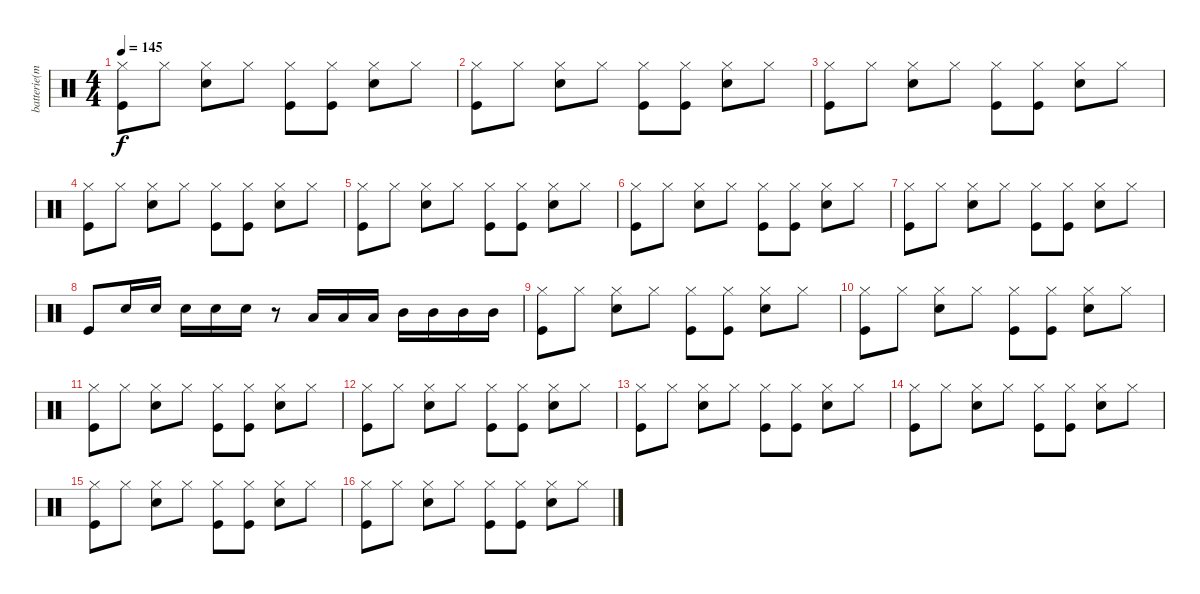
\track ("batterie(micky)" "batterie(m") {instrument percussion}
\staff {score}
\articulation defaults
\ts (4 4)
\tempo 145
\clef neutral
\ks c
("Hi-Hat (closed)" "Kick (hit)").8{dy f} "Hi-Hat (closed)".8 ("Hi-Hat (closed)" "Snare (hit) 2").8 "Hi-Hat (closed)".8 ("Hi-Hat (closed)" "Kick (hit)").8 ("Hi-Hat (closed)" "Kick (hit)").8 ("Hi-Hat (closed)" "Snare (hit) 2").8 "Hi-Hat (closed)".8 |
("Hi-Hat (closed)" "Kick (hit)").8 "Hi-Hat (closed)".8 ("Hi-Hat (closed)" "Snare (hit) 2").8 "Hi-Hat (closed)".8 ("Hi-Hat (closed)" "Kick (hit)").8 ("Hi-Hat (closed)" "Kick (hit)").8 ("Hi-Hat (closed)" "Snare (hit) 2").8 "Hi-Hat (closed)".8 |
("Hi-Hat (closed)" "Kick (hit)").8 "Hi-Hat (closed)".8 ("Hi-Hat (closed)" "Snare (hit) 2").8 "Hi-Hat (closed)".8 ("Hi-Hat (closed)" "Kick (hit)").8 ("Hi-Hat (closed)" "Kick (hit)").8 ("Hi-Hat (closed)" "Snare (hit) 2").8 "Hi-Hat (closed)".8 |
("Hi-Hat (closed)" "Kick (hit)").8 "Hi-Hat (closed)".8 ("Hi-Hat (closed)" "Snare (hit) 2").8 "Hi-Hat (closed)".8 ("Hi-Hat (closed)" "Kick (hit)").8 ("Hi-Hat (closed)" "Kick (hit)").8 ("Hi-Hat (closed)" "Snare (hit) 2").8 "Hi-Hat (closed)".8 |
("Hi-Hat (closed)" "Kick (hit)").8 "Hi-Hat (closed)".8 ("Hi-Hat (closed)" "Snare (hit) 2").8 "Hi-Hat (closed)".8 ("Hi-Hat (closed)" "Kick (hit)").8 ("Hi-Hat (closed)" "Kick (hit)").8 ("Hi-Hat (closed)" "Snare (hit) 2").8 "Hi-Hat (closed)".8 |
("Hi-Hat (closed)" "Kick (hit)").8 "Hi-Hat (closed)".8 ("Hi-Hat (closed)" "Snare (hit) 2").8 "Hi-Hat (closed)".8 ("Hi-Hat (closed)" "Kick (hit)").8 ("Hi-Hat (closed)" "Kick (hit)").8 ("Hi-Hat (closed)" "Snare (hit) 2").8 "Hi-Hat (closed)".8 |
("Hi-Hat (closed)" "Kick (hit)").8 "Hi-Hat (closed)".8 ("Hi-Hat (closed)" "Snare (hit) 2").8 "Hi-Hat (closed)".8 ("Hi-Hat (closed)" "Kick (hit)").8 ("Hi-Hat (closed)" "Kick (hit)").8 ("Hi-Hat (closed)" "Snare (hit) 2").8 "Hi-Hat (closed)".8 |
"Kick (hit)".8 "Snare (hit) 2".16 "Snare (hit) 2".16 "Snare (hit) 2".16 "Snare (hit) 2".16 "Snare (hit) 2".16 r.8 "Low Tom (hit)".16 "Low Tom (hit)".16 "Low Tom (hit)".16 "Mid Tom (hit)".16 "Mid Tom (hit)".16 "Mid Tom (hit)".16 "Mid Tom (hit)".16 |
("Hi-Hat (closed)" "Kick (hit)").8 "Hi-Hat (closed)".8 ("Hi-Hat (closed)" "Snare (hit) 2").8 "Hi-Hat (closed)".8 ("Hi-Hat (closed)" "Kick (hit)").8 ("Hi-Hat (closed)" "Kick (hit)").8 ("Hi-Hat (closed)" "Snare (hit) 2").8 "Hi-Hat (closed)".8 |
("Hi-Hat (closed)" "Kick (hit)").8 "Hi-Hat (closed)".8 ("Hi-Hat (closed)" "Snare (hit) 2").8 "Hi-Hat (closed)".8 ("Hi-Hat (closed)" "Kick (hit)").8 ("Hi-Hat (closed)" "Kick (hit)").8 ("Hi-Hat (closed)" "Snare (hit) 2").8 "Hi-Hat (closed)".8 |
("Hi-Hat (closed)" "Kick (hit)").8 "Hi-Hat (closed)".8 ("Hi-Hat (closed)" "Snare (hit) 2").8 "Hi-Hat (closed)".8 ("Hi-Hat (closed)" "Kick (hit)").8 ("Hi-Hat (closed)" "Kick (hit)").8 ("Hi-Hat (closed)" "Snare (hit) 2").8 "Hi-Hat (closed)".8 |
("Hi-Hat (closed)" "Kick (hit)").8 "Hi-Hat (closed)".8 ("Hi-Hat (closed)" "Snare (hit) 2").8 "Hi-Hat (closed)".8 ("Hi-Hat (closed)" "Kick (hit)").8 ("Hi-Hat (closed)" "Kick (hit)").8 ("Hi-Hat (closed)" "Snare (hit) 2").8 "Hi-Hat (closed)".8 |
("Hi-Hat (closed)" "Kick (hit)").8 "Hi-Hat (closed)".8 ("Hi-Hat (closed)" "Snare (hit) 2").8 "Hi-Hat (closed)".8 ("Hi-Hat (closed)" "Kick (hit)").8 ("Hi-Hat (closed)" "Kick (hit)").8 ("Hi-Hat (closed)" "Snare (hit) 2").8 "Hi-Hat (closed)".8 |
("Hi-Hat (closed)" "Kick (hit)").8 "Hi-Hat (closed)".8 ("Hi-Hat (closed)" "Snare (hit) 2").8 "Hi-Hat (closed)".8 ("Hi-Hat (closed)" "Kick (hit)").8 ("Hi-Hat (closed)" "Kick (hit)").8 ("Hi-Hat (closed)" "Snare (hit) 2").8 "Hi-Hat (closed)".8 |
("Hi-Hat (closed)" "Kick (hit)").8 "Hi-Hat (closed)".8 ("Hi-Hat (closed)" "Snare (hit) 2").8 "Hi-Hat (closed)".8 ("Hi-Hat (closed)" "Kick (hit)").8 ("Hi-Hat (closed)" "Kick (hit)").8 ("Hi-Hat (closed)" "Snare (hit) 2").8 "Hi-Hat (closed)".8 |
("Hi-Hat (closed)" "Kick (hit)").8 "Hi-Hat (closed)".8 ("Hi-Hat (closed)" "Snare (hit) 2").8 "Hi-Hat (closed)".8 ("Hi-Hat (closed)" "Kick (hit)").8 ("Hi-Hat (closed)" "Kick (hit)").8 ("Hi-Hat (closed)" "Snare (hit) 2").8 "Hi-Hat (closed)".8
